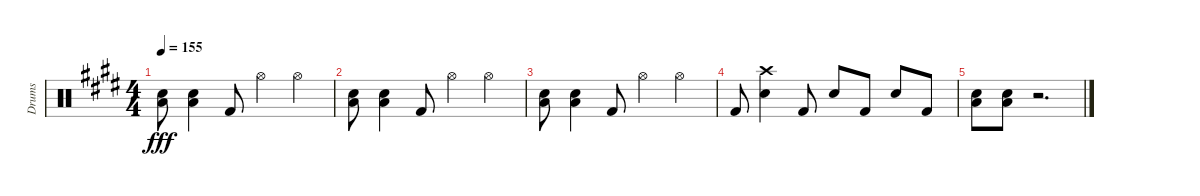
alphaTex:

\track ("Drums" "Drums") {instrument percussion}
\staff {score}
\articulation defaults
\ts (4 4)
\tempo 155
\clef neutral
\ks e
("Low Floor Tom (hit)" "Snare (hit) 2").8{dy fff} ("Low Floor Tom (hit)" "Snare (hit) 2").4 "Kick (hit) 2".8 "Hi-Hat (open)".4 "Hi-Hat (open)".4 |
("Low Floor Tom (hit)" "Snare (hit) 2").8 ("Low Floor Tom (hit)" "Snare (hit) 2").4 "Kick (hit) 2".8 "Hi-Hat (open)".4 "Hi-Hat (open)".4 |
("Low Floor Tom (hit)" "Snare (hit) 2").8 ("Low Floor Tom (hit)" "Snare (hit) 2").4 "Kick (hit) 2".8 "Hi-Hat (open)".4 "Hi-Hat (open)".4 |
"Kick (hit) 2".8 ("Crash high (hit)" "Snare (hit) 2").4 "Kick (hit) 2".8 "Snare (hit) 2".8 "Kick (hit) 2".8 "Snare (hit) 2".8 "Kick (hit) 2".8 |
("Low Floor Tom (hit)" "Snare (hit) 2").8 ("Low Floor Tom (hit)" "Snare (hit) 2").8 r.2{d}
